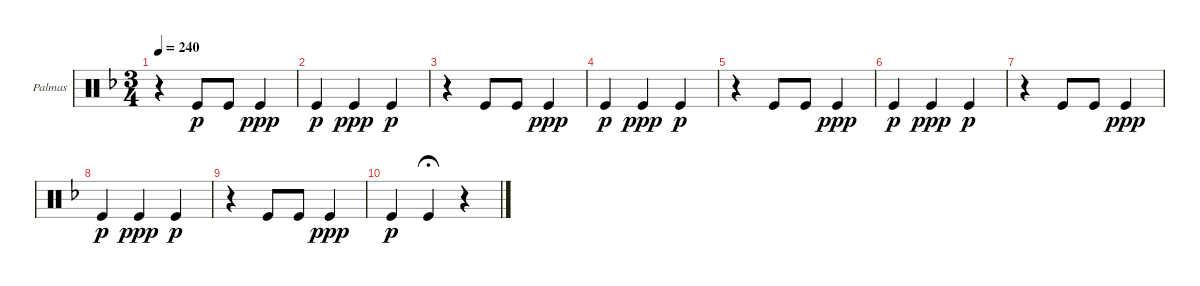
\defaultSystemsLayout 4
\bracketExtendMode groupsimilarinstruments
\firstSystemTrackNameOrientation horizontal
\otherSystemsTrackNameOrientation horizontal
\track ("Palmas" "Palmas") {instrument percussion}
\staff {score}
\articulation defaults
\ts (3 4)
\tempo 240
\clef neutral
\ks f
r.4{dy p} "Kick (hit)".8 "Kick (hit)".8 "Kick (hit)".4{dy ppp} |
"Kick (hit)".4{dy p} "Kick (hit)".4{dy ppp} "Kick (hit)".4{dy p} |
r.4 "Kick (hit)".8 "Kick (hit)".8 "Kick (hit)".4{dy ppp} |
"Kick (hit)".4{dy p} "Kick (hit)".4{dy ppp} "Kick (hit)".4{dy p} |
r.4 "Kick (hit)".8 "Kick (hit)".8 "Kick (hit)".4{dy ppp} |
"Kick (hit)".4{dy p} "Kick (hit)".4{dy ppp} "Kick (hit)".4{dy p} |
r.4 "Kick (hit)".8 "Kick (hit)".8 "Kick (hit)".4{dy ppp} |
"Kick (hit)".4{dy p} "Kick (hit)".4{dy ppp} "Kick (hit)".4{dy p} |
r.4 "Kick (hit)".8 "Kick (hit)".8 "Kick (hit)".4{dy ppp} |
"Kick (hit)".4{dy p} "Kick (hit)".4{fermata (medium 1)} r.4
